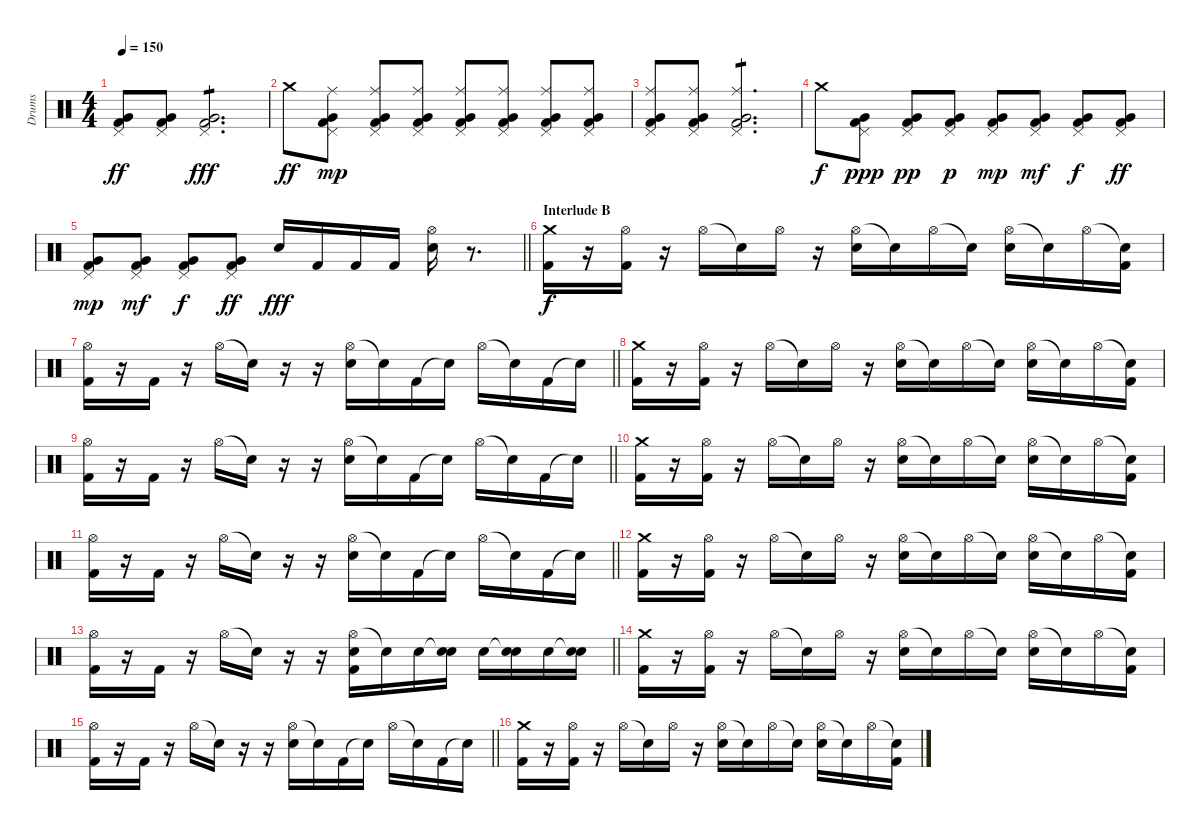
\track ("Drums" "Drums") {instrument percussion}
\staff {score}
\articulation defaults
\ts (4 4)
\tempo 150
\clef neutral
\ks c
("Pedal Hi-Hat (hit)" "Kick (hit) 2" "Very Low Tom (hit)").8{dy ff} ("Pedal Hi-Hat (hit)" "Kick (hit) 2" "Very Low Tom (hit)").8 ("Pedal Hi-Hat (hit)" "Kick (hit) 2" "Very Low Tom (hit)").2{d tp 1 dy fff} |
"Crash medium (hit)".8{dy ff} ("Ride (middle)" "Pedal Hi-Hat (hit)" "Kick (hit) 2" "Very Low Tom (hit)").8{dy mp} ("Ride (middle)" "Pedal Hi-Hat (hit)" "Kick (hit) 2" "Very Low Tom (hit)").8 ("Ride (middle)" "Pedal Hi-Hat (hit)" "Kick (hit) 2" "Very Low Tom (hit)").8 ("Ride (middle)" "Pedal Hi-Hat (hit)" "Kick (hit) 2" "Very Low Tom (hit)").8 ("Ride (middle)" "Pedal Hi-Hat (hit)" "Kick (hit) 2" "Very Low Tom (hit)").8 ("Ride (middle)" "Pedal Hi-Hat (hit)" "Kick (hit) 2" "Very Low Tom (hit)").8 ("Ride (middle)" "Pedal Hi-Hat (hit)" "Kick (hit) 2" "Very Low Tom (hit)").8 |
("Ride (middle)" "Pedal Hi-Hat (hit)" "Kick (hit) 2" "Very Low Tom (hit)").8 ("Ride (middle)" "Pedal Hi-Hat (hit)" "Kick (hit) 2" "Very Low Tom (hit)").8 ("Ride (middle)" "Pedal Hi-Hat (hit)" "Kick (hit) 2" "Very Low Tom (hit)").2{d tp 1} |
"Crash medium (hit)".8{dy f} ("Pedal Hi-Hat (hit)" "Kick (hit) 2" "Very Low Tom (hit)").8{dy ppp} ("Pedal Hi-Hat (hit)" "Kick (hit) 2" "Very Low Tom (hit)").8{dy pp} ("Pedal Hi-Hat (hit)" "Kick (hit) 2" "Very Low Tom (hit)").8{dy p} ("Pedal Hi-Hat (hit)" "Kick (hit) 2" "Very Low Tom (hit)").8{dy mp} ("Pedal Hi-Hat (hit)" "Kick (hit) 2" "Very Low Tom (hit)").8{dy mf} ("Pedal Hi-Hat (hit)" "Kick (hit) 2" "Very Low Tom (hit)").8{dy f} ("Pedal Hi-Hat (hit)" "Kick (hit) 2" "Very Low Tom (hit)").8{dy ff} |
\barLineRight lightlight
("Pedal Hi-Hat (hit)" "Kick (hit) 2" "Very Low Tom (hit)").8{dy mp} ("Pedal Hi-Hat (hit)" "Kick (hit) 2" "Very Low Tom (hit)").8{dy mf} ("Pedal Hi-Hat (hit)" "Kick (hit) 2" "Very Low Tom (hit)").8{dy f} ("Pedal Hi-Hat (hit)" "Kick (hit) 2" "Very Low Tom (hit)").8{dy ff} "Snare (hit) 2".16{dy fff} "Kick (hit) 2".16 "Kick (hit) 2".16 "Kick (hit) 2".16 ("Hi-Hat (open)" "Snare (hit) 2").16 r.8{d} |
\section ("" "Interlude B")
("Crash medium (hit)" "Kick (hit) 2").16{dy f} r.16 ("Hi-Hat (open)" "Kick (hit) 2").16 r.16 "Hi-Hat (open)".16 "Snare (hit)"{t}.16 "Hi-Hat (open)".16 r.16 ("Hi-Hat (open)" "Snare (hit) 2").16 "Snare (hit)"{t}.16 "Hi-Hat (open)".16 "Snare (hit)"{t}.16 ("Hi-Hat (open)" "Snare (hit) 2").16 "Snare (hit)"{t}.16 "Hi-Hat (open)".16 ("Snare (hit)"{t} "Kick (hit) 2").16 |
\barLineRight lightlight
("Hi-Hat (open)" "Kick (hit) 2").16 r.16 "Kick (hit) 2".16 r.16 "Hi-Hat (open)".16 "Snare (hit)"{t}.16 r.16 r.16 ("Hi-Hat (open)" "Snare (hit) 2").16 "Snare (hit)"{t}.16 "Kick (hit) 2".16 "Snare (hit)"{t}.16 "Hi-Hat (open)".16 "Snare (hit)"{t}.16 "Kick (hit) 2".16 "Snare (hit)"{t}.16 |
("Crash medium (hit)" "Kick (hit) 2").16 r.16 ("Hi-Hat (open)" "Kick (hit) 2").16 r.16 "Hi-Hat (open)".16 "Snare (hit)"{t}.16 "Hi-Hat (open)".16 r.16 ("Hi-Hat (open)" "Snare (hit) 2").16 "Snare (hit)"{t}.16 "Hi-Hat (open)".16 "Snare (hit)"{t}.16 ("Hi-Hat (open)" "Snare (hit) 2").16 "Snare (hit)"{t}.16 "Hi-Hat (open)".16 ("Snare (hit)"{t} "Kick (hit) 2").16 |
\barLineRight lightlight
("Hi-Hat (open)" "Kick (hit) 2").16 r.16 "Kick (hit) 2".16 r.16 "Hi-Hat (open)".16 "Snare (hit)"{t}.16 r.16 r.16 ("Hi-Hat (open)" "Snare (hit) 2").16 "Snare (hit)"{t}.16 "Kick (hit) 2".16 "Snare (hit)"{t}.16 "Hi-Hat (open)".16 "Snare (hit)"{t}.16 "Kick (hit) 2".16 "Snare (hit)"{t}.16 |
("Crash medium (hit)" "Kick (hit) 2").16 r.16 ("Hi-Hat (open)" "Kick (hit) 2").16 r.16 "Hi-Hat (open)".16 "Snare (hit)"{t}.16 "Hi-Hat (open)".16 r.16 ("Hi-Hat (open)" "Snare (hit) 2").16 "Snare (hit)"{t}.16 "Hi-Hat (open)".16 "Snare (hit)"{t}.16 ("Hi-Hat (open)" "Snare (hit) 2").16 "Snare (hit)"{t}.16 "Hi-Hat (open)".16 ("Snare (hit)"{t} "Kick (hit) 2").16 |
\barLineRight lightlight
("Hi-Hat (open)" "Kick (hit) 2").16 r.16 "Kick (hit) 2".16 r.16 "Hi-Hat (open)".16 "Snare (hit)"{t}.16 r.16 r.16 ("Hi-Hat (open)" "Snare (hit) 2").16 "Snare (hit)"{t}.16 "Kick (hit) 2".16 "Snare (hit)"{t}.16 "Hi-Hat (open)".16 "Snare (hit)"{t}.16 "Kick (hit) 2".16 "Snare (hit)"{t}.16 |
("Crash medium (hit)" "Kick (hit) 2").16 r.16 ("Hi-Hat (open)" "Kick (hit) 2").16 r.16 "Hi-Hat (open)".16 "Snare (hit)"{t}.16 "Hi-Hat (open)".16 r.16 ("Hi-Hat (open)" "Snare (hit) 2").16 "Snare (hit)"{t}.16 "Hi-Hat (open)".16 "Snare (hit)"{t}.16 ("Hi-Hat (open)" "Snare (hit) 2").16 "Snare (hit)"{t}.16 "Hi-Hat (open)".16 ("Snare (hit)"{t} "Kick (hit) 2").16 |
\barLineRight lightlight
("Hi-Hat (open)" "Kick (hit) 2").16 r.16 "Kick (hit) 2".16 r.16 "Hi-Hat (open)".16 "Snare (hit)"{t}.16 r.16 r.16 ("Hi-Hat (open)" "Snare (hit) 2" "Kick (hit) 2").16 "Snare (hit)"{t}.16 "Snare (hit) 2".16 ("Snare (hit)"{t} "Snare (hit) 2").16 "Snare (hit) 2".16 ("Snare (hit)"{t} "Snare (hit) 2").16 "Snare (hit) 2".16 ("Snare (hit)"{t} "Snare (hit) 2").16 |
("Crash medium (hit)" "Kick (hit) 2").16 r.16 ("Hi-Hat (open)" "Kick (hit) 2").16 r.16 "Hi-Hat (open)".16 "Snare (hit)"{t}.16 "Hi-Hat (open)".16 r.16 ("Hi-Hat (open)" "Snare (hit) 2").16 "Snare (hit)"{t}.16 "Hi-Hat (open)".16 "Snare (hit)"{t}.16 ("Hi-Hat (open)" "Snare (hit) 2").16 "Snare (hit)"{t}.16 "Hi-Hat (open)".16 ("Snare (hit)"{t} "Kick (hit) 2").16 |
\barLineRight lightlight
("Hi-Hat (open)" "Kick (hit) 2").16 r.16 "Kick (hit) 2".16 r.16 "Hi-Hat (open)".16 "Snare (hit)"{t}.16 r.16 r.16 ("Hi-Hat (open)" "Snare (hit) 2").16 "Snare (hit)"{t}.16 "Kick (hit) 2".16 "Snare (hit)"{t}.16 "Hi-Hat (open)".16 "Snare (hit)"{t}.16 "Kick (hit) 2".16 "Snare (hit)"{t}.16 |
("Crash medium (hit)" "Kick (hit) 2").16 r.16 ("Hi-Hat (open)" "Kick (hit) 2").16 r.16 "Hi-Hat (open)".16 "Snare (hit)"{t}.16 "Hi-Hat (open)".16 r.16 ("Hi-Hat (open)" "Snare (hit) 2").16 "Snare (hit)"{t}.16 "Hi-Hat (open)".16 "Snare (hit)"{t}.16 ("Hi-Hat (open)" "Snare (hit) 2").16 "Snare (hit)"{t}.16 "Hi-Hat (open)".16 ("Snare (hit)"{t} "Kick (hit) 2").16
